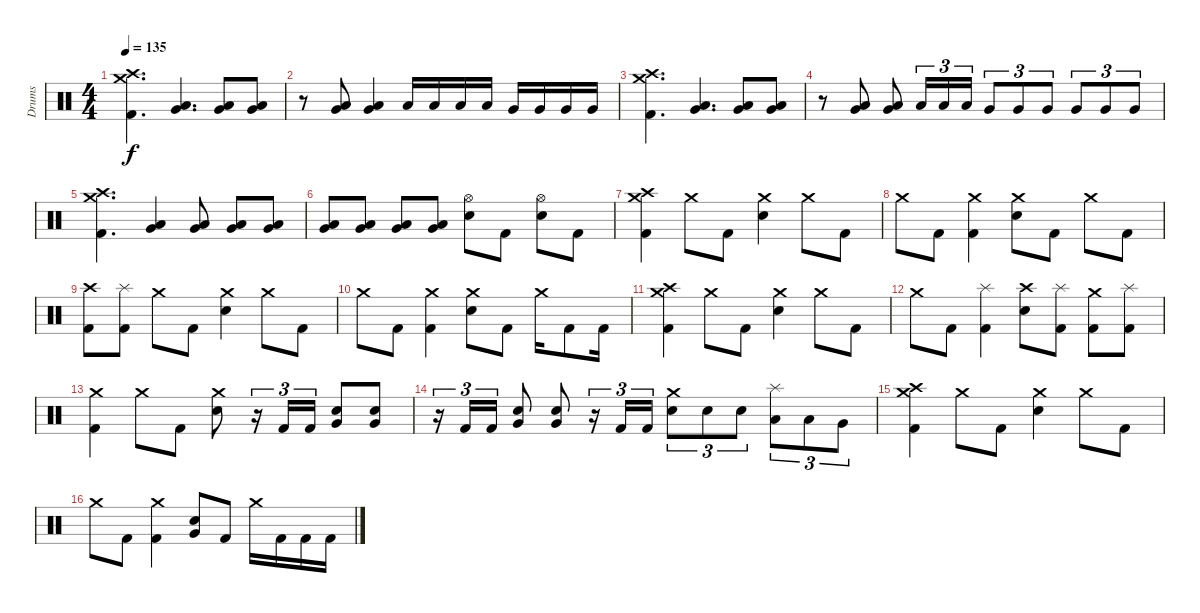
\track ("Drums" "Drums") {instrument percussion}
\staff {score}
\articulation defaults
\ts (4 4)
\tempo 135
\clef neutral
\ks c
("Crash medium (hit)" "Crash high (hit)" "Kick (hit) 2").4{d dy f} ("Low Tom (hit)" "Very Low Tom (hit)").4{d} ("Low Tom (hit)" "Very Low Tom (hit)").8 ("Low Tom (hit)" "Very Low Tom (hit)").8 |
r.8 ("Low Tom (hit)" "Very Low Tom (hit)").8 ("Low Tom (hit)" "Very Low Tom (hit)").4 "Low Tom (hit)".16 "Low Tom (hit)".16 "Low Tom (hit)".16 "Low Tom (hit)".16 "Very Low Tom (hit)".16 "Very Low Tom (hit)".16 "Very Low Tom (hit)".16 "Very Low Tom (hit)".16 |
("Crash medium (hit)" "Crash high (hit)" "Kick (hit) 2").4{d} ("Low Tom (hit)" "Very Low Tom (hit)").4{d} ("Low Tom (hit)" "Very Low Tom (hit)").8 ("Low Tom (hit)" "Very Low Tom (hit)").8 |
r.8 ("Low Tom (hit)" "Very Low Tom (hit)").8 ("Low Tom (hit)" "Very Low Tom (hit)").8 "Low Tom (hit)".16{tu (3 2)} "Low Tom (hit)".16{tu (3 2)} "Low Tom (hit)".16{tu (3 2)} "Very Low Tom (hit)".8{tu (3 2)} "Very Low Tom (hit)".8{tu (3 2)} "Very Low Tom (hit)".8{tu (3 2)} "Very Low Tom (hit)".8{tu (3 2)} "Very Low Tom (hit)".8{tu (3 2)} "Very Low Tom (hit)".8{tu (3 2)} |
("Crash medium (hit)" "Crash high (hit)" "Kick (hit) 2").4{d} ("Low Tom (hit)" "Very Low Tom (hit)").4 ("Low Tom (hit)" "Very Low Tom (hit)").8 ("Low Tom (hit)" "Very Low Tom (hit)").8 ("Low Tom (hit)" "Very Low Tom (hit)").8 |
("Low Tom (hit)" "Very Low Tom (hit)").8 ("Low Tom (hit)" "Very Low Tom (hit)").8 ("Low Tom (hit)" "Very Low Tom (hit)").8 ("Low Tom (hit)" "Very Low Tom (hit)").8 ("Hi-Hat (open)" "Electric Snare (hit)").8 "Kick (hit) 2".8 ("Hi-Hat (open)" "Electric Snare (hit)").8 "Kick (hit) 2".8 |
("Crash medium (hit)" "Crash high (hit)" "Kick (hit) 2").4 "Crash medium (hit)".8 "Kick (hit) 2".8 ("Crash medium (hit)" "Electric Snare (hit)").4 "Crash medium (hit)".8 "Kick (hit) 2".8 |
"Crash medium (hit)".8 "Kick (hit) 2".8 ("Crash medium (hit)" "Kick (hit) 2").4 ("Crash medium (hit)" "Electric Snare (hit)").8 "Kick (hit) 2".8 "Crash medium (hit)".8 "Kick (hit) 2".8 |
("Crash high (hit)" "Kick (hit) 2").8 ("Splash (hit)" "Kick (hit) 2").8 "Crash medium (hit)".8 "Kick (hit) 2".8 ("Crash medium (hit)" "Electric Snare (hit)").4 "Crash medium (hit)".8 "Kick (hit) 2".8 |
"Crash medium (hit)".8 "Kick (hit) 2".8 ("Crash medium (hit)" "Kick (hit) 2").4 ("Crash medium (hit)" "Electric Snare (hit)").8 "Kick (hit) 2".8 "Crash medium (hit)".16 "Kick (hit) 2".8 "Kick (hit) 2".16 |
("Crash medium (hit)" "Crash high (hit)" "Kick (hit) 2").4 "Crash medium (hit)".8 "Kick (hit) 2".8 ("Crash medium (hit)" "Electric Snare (hit)").4 "Crash medium (hit)".8 "Kick (hit) 2".8 |
"Crash medium (hit)".8 "Kick (hit) 2".8 ("Splash (hit)" "Kick (hit) 2").4 ("Crash high (hit)" "Electric Snare (hit)").8 ("Splash (hit)" "Kick (hit) 2").8 ("Crash medium (hit)" "Kick (hit) 2").8 ("Splash (hit)" "Kick (hit) 2").8 |
("Crash medium (hit)" "Kick (hit) 2").4 "Crash medium (hit)".8 "Kick (hit) 2".8 ("Crash medium (hit)" "Electric Snare (hit)").8 r.16{tu (3 2)} "Kick (hit) 2".16{tu (3 2)} "Kick (hit) 2".16{tu (3 2)} ("Electric Snare (hit)" "Very Low Tom (hit)").8 ("Electric Snare (hit)" "Very Low Tom (hit)").8 |
r.16{tu (3 2)} "Kick (hit) 2".16{tu (3 2)} "Kick (hit) 2".16{tu (3 2)} ("Electric Snare (hit)" "Very Low Tom (hit)").8 ("Electric Snare (hit)" "Very Low Tom (hit)").8 r.16{tu (3 2)} "Kick (hit) 2".16{tu (3 2)} "Kick (hit) 2".16{tu (3 2)} ("Crash medium (hit)" "Electric Snare (hit)").8{tu (3 2)} "Electric Snare (hit)".8{tu (3 2)} "Electric Snare (hit)".8{tu (3 2)} ("Splash (hit)" "Low Tom (hit)").8{tu (3 2)} "Low Tom (hit)".8{tu (3 2)} "Very Low Tom (hit)".8{tu (3 2)} |
("Crash medium (hit)" "Crash high (hit)" "Kick (hit) 2").4 "Crash medium (hit)".8 "Kick (hit) 2".8 ("Crash medium (hit)" "Electric Snare (hit)").4 "Crash medium (hit)".8 "Kick (hit) 2".8 |
"Crash medium (hit)".8 "Kick (hit) 2".8 ("Crash medium (hit)" "Kick (hit) 2").4 ("Electric Snare (hit)" "Very Low Tom (hit)").8 "Kick (hit) 2".8 "Crash medium (hit)".16 "Kick (hit) 2".16 "Kick (hit) 2".16 "Kick (hit) 2".16
